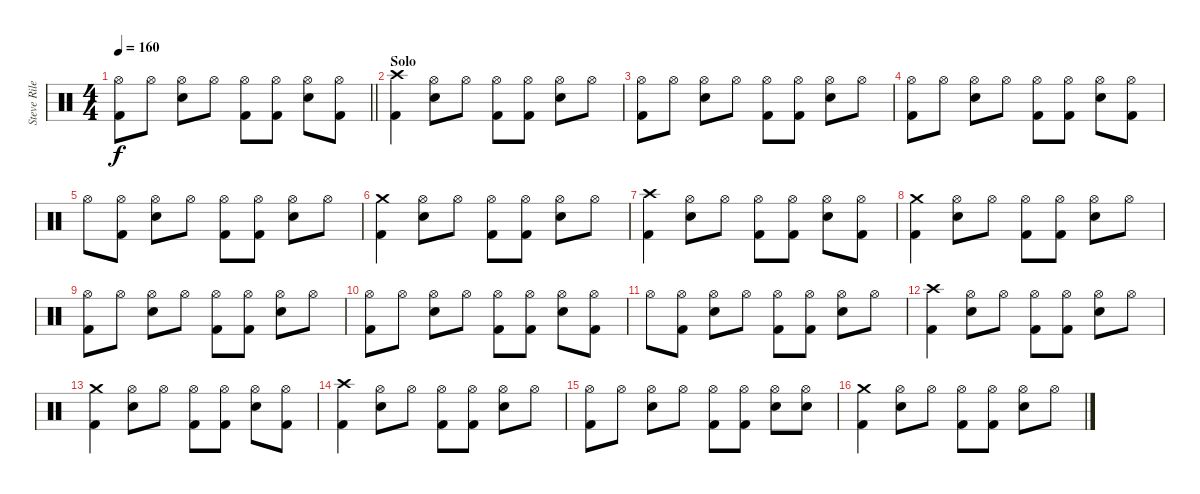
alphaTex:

\track ("Steve Riley" "Steve Rile") {instrument percussion}
\staff {score}
\articulation defaults
\ts (4 4)
\tempo 160
\clef neutral
\barLineRight lightlight
\ks c
("Hi-Hat (open)" "Kick (hit) 2").8{dy f} "Hi-Hat (open)".8 ("Hi-Hat (open)" "Snare (hit) 2").8 "Hi-Hat (open)".8 ("Hi-Hat (open)" "Kick (hit) 2").8 ("Hi-Hat (open)" "Kick (hit) 2").8 ("Hi-Hat (open)" "Snare (hit) 2").8 ("Hi-Hat (open)" "Kick (hit) 2").8 |
\section ("" "Solo")
("Crash high (hit)" "Kick (hit) 2").4 ("Hi-Hat (open)" "Snare (hit) 2").8 "Hi-Hat (open)".8 ("Hi-Hat (open)" "Kick (hit) 2").8 ("Hi-Hat (open)" "Kick (hit) 2").8 ("Hi-Hat (open)" "Snare (hit) 2").8 "Hi-Hat (open)".8 |
("Hi-Hat (open)" "Kick (hit) 2").8 "Hi-Hat (open)".8 ("Hi-Hat (open)" "Snare (hit) 2").8 "Hi-Hat (open)".8 ("Hi-Hat (open)" "Kick (hit) 2").8 ("Hi-Hat (open)" "Kick (hit) 2").8 ("Hi-Hat (open)" "Snare (hit) 2").8 "Hi-Hat (open)".8 |
("Hi-Hat (open)" "Kick (hit) 2").8 "Hi-Hat (open)".8 ("Hi-Hat (open)" "Snare (hit) 2").8 "Hi-Hat (open)".8 ("Hi-Hat (open)" "Kick (hit) 2").8 ("Hi-Hat (open)" "Kick (hit) 2").8 ("Hi-Hat (open)" "Snare (hit) 2").8 ("Hi-Hat (open)" "Kick (hit) 2").8 |
"Hi-Hat (open)".8 ("Hi-Hat (open)" "Kick (hit) 2").8 ("Hi-Hat (open)" "Snare (hit) 2").8 "Hi-Hat (open)".8 ("Hi-Hat (open)" "Kick (hit) 2").8 ("Hi-Hat (open)" "Kick (hit) 2").8 ("Hi-Hat (open)" "Snare (hit) 2").8 "Hi-Hat (open)".8 |
("Crash medium (hit)" "Kick (hit) 2").4 ("Hi-Hat (open)" "Snare (hit) 2").8 "Hi-Hat (open)".8 ("Hi-Hat (open)" "Kick (hit) 2").8 ("Hi-Hat (open)" "Kick (hit) 2").8 ("Hi-Hat (open)" "Snare (hit) 2").8 "Hi-Hat (open)".8 |
("Crash high (hit)" "Kick (hit) 2").4 ("Hi-Hat (open)" "Snare (hit) 2").8 "Hi-Hat (open)".8 ("Hi-Hat (open)" "Kick (hit) 2").8 ("Hi-Hat (open)" "Kick (hit) 2").8 ("Hi-Hat (open)" "Snare (hit) 2").8 ("Hi-Hat (open)" "Kick (hit) 2").8 |
("Crash medium (hit)" "Kick (hit) 2").4 ("Hi-Hat (open)" "Snare (hit) 2").8 "Hi-Hat (open)".8 ("Hi-Hat (open)" "Kick (hit) 2").8 ("Hi-Hat (open)" "Kick (hit) 2").8 ("Hi-Hat (open)" "Snare (hit) 2").8 "Hi-Hat (open)".8 |
("Hi-Hat (open)" "Kick (hit) 2").8 "Hi-Hat (open)".8 ("Hi-Hat (open)" "Snare (hit) 2").8 "Hi-Hat (open)".8 ("Hi-Hat (open)" "Kick (hit) 2").8 ("Hi-Hat (open)" "Kick (hit) 2").8 ("Hi-Hat (open)" "Snare (hit) 2").8 "Hi-Hat (open)".8 |
("Hi-Hat (open)" "Kick (hit) 2").8 "Hi-Hat (open)".8 ("Hi-Hat (open)" "Snare (hit) 2").8 "Hi-Hat (open)".8 ("Hi-Hat (open)" "Kick (hit) 2").8 ("Hi-Hat (open)" "Kick (hit) 2").8 ("Hi-Hat (open)" "Snare (hit) 2").8 ("Hi-Hat (open)" "Kick (hit) 2").8 |
"Hi-Hat (open)".8 ("Hi-Hat (open)" "Kick (hit) 2").8 ("Hi-Hat (open)" "Snare (hit) 2").8 "Hi-Hat (open)".8 ("Hi-Hat (open)" "Kick (hit) 2").8 ("Hi-Hat (open)" "Kick (hit) 2").8 ("Hi-Hat (open)" "Snare (hit) 2").8 "Hi-Hat (open)".8 |
("Crash high (hit)" "Kick (hit) 2").4 ("Hi-Hat (open)" "Snare (hit) 2").8 "Hi-Hat (open)".8 ("Hi-Hat (open)" "Kick (hit) 2").8 ("Hi-Hat (open)" "Kick (hit) 2").8 ("Hi-Hat (open)" "Snare (hit) 2").8 "Hi-Hat (open)".8 |
("Crash medium (hit)" "Kick (hit) 2").4 ("Hi-Hat (open)" "Snare (hit) 2").8 "Hi-Hat (open)".8 ("Hi-Hat (open)" "Kick (hit) 2").8 ("Hi-Hat (open)" "Kick (hit) 2").8 ("Hi-Hat (open)" "Snare (hit) 2").8 ("Hi-Hat (open)" "Kick (hit) 2").8 |
("Crash high (hit)" "Kick (hit) 2").4 ("Hi-Hat (open)" "Snare (hit) 2").8 "Hi-Hat (open)".8 ("Hi-Hat (open)" "Kick (hit) 2").8 ("Hi-Hat (open)" "Kick (hit) 2").8 ("Hi-Hat (open)" "Snare (hit) 2").8 "Hi-Hat (open)".8 |
("Hi-Hat (open)" "Kick (hit) 2").8 "Hi-Hat (open)".8 ("Hi-Hat (open)" "Snare (hit) 2").8 "Hi-Hat (open)".8 ("Hi-Hat (open)" "Kick (hit) 2").8 ("Hi-Hat (open)" "Kick (hit) 2").8 ("Hi-Hat (open)" "Snare (hit) 2").8 ("Hi-Hat (open)" "Snare (hit) 2").8 |
("Crash medium (hit)" "Kick (hit) 2").4 ("Hi-Hat (open)" "Snare (hit) 2").8 "Hi-Hat (open)".8 ("Hi-Hat (open)" "Kick (hit) 2").8 ("Hi-Hat (open)" "Kick (hit) 2").8 ("Hi-Hat (open)" "Snare (hit) 2").8 "Hi-Hat (open)".8
